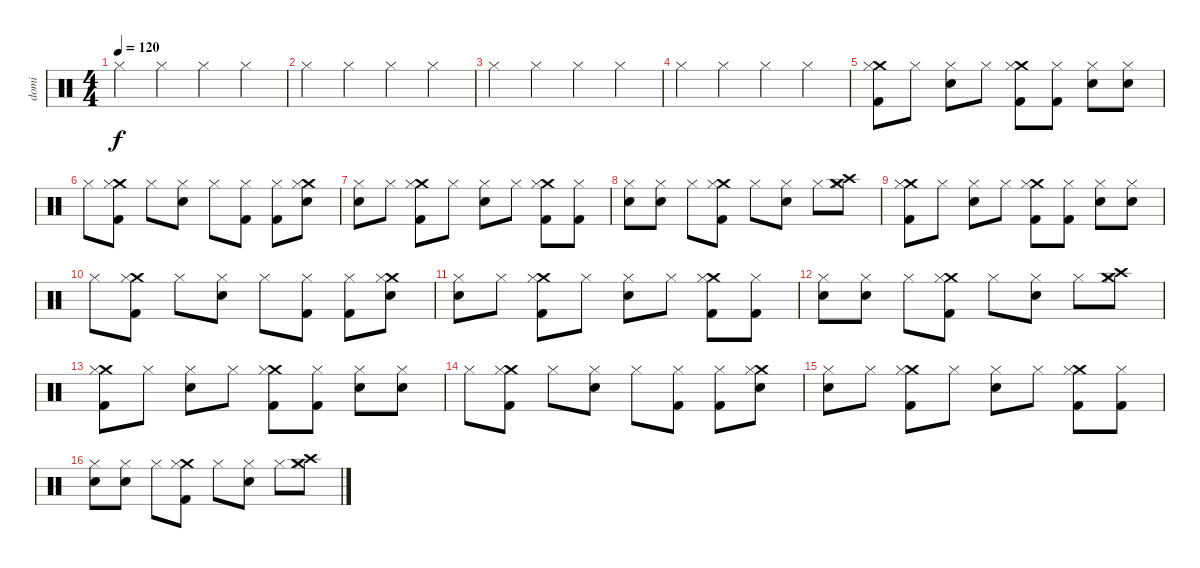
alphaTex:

\track ("domi" "domi") {instrument percussion}
\staff {score}
\articulation defaults
\ts (4 4)
\tempo 120
\clef neutral
\ks c "Hi-Hat (closed)".4{dy f} "Hi-Hat (closed)".4 "Hi-Hat (closed)".4 "Hi-Hat (closed)".4
|
"Hi-Hat (closed)".4 "Hi-Hat (closed)".4 "Hi-Hat (closed)".4 "Hi-Hat (closed)".4 |
"Hi-Hat (closed)".4 "Hi-Hat (closed)".4 "Hi-Hat (closed)".4 "Hi-Hat (closed)".4 |
"Hi-Hat (closed)".4 "Hi-Hat (closed)".4 "Hi-Hat (closed)".4 "Hi-Hat (closed)".4 |
("Crash medium (hit)" "Kick (hit) 2" "Hi-Hat (closed)").8 "Hi-Hat (closed)".8 ("Electric Snare (hit)" "Hi-Hat (closed)").8 "Hi-Hat (closed)".8 ("Crash medium (hit)" "Kick (hit) 2" "Hi-Hat (closed)").8 ("Kick (hit) 2" "Hi-Hat (closed)").8 ("Snare (hit) 2" "Hi-Hat (closed)").8 ("Electric Snare (hit)" "Hi-Hat (closed)").8 |
"Hi-Hat (closed)".8 ("Crash medium (hit)" "Kick (hit) 2" "Hi-Hat (closed)").8 "Hi-Hat (closed)".8 ("Electric Snare (hit)" "Hi-Hat (closed)").8 "Hi-Hat (closed)".8 ("Kick (hit) 2" "Hi-Hat (closed)").8 ("Kick (hit) 2" "Hi-Hat (closed)").8 ("Crash medium (hit)" "Snare (hit) 2" "Hi-Hat (closed)").8 |
("Electric Snare (hit)" "Hi-Hat (closed)").8 "Hi-Hat (closed)".8 ("Crash medium (hit)" "Kick (hit) 2" "Hi-Hat (closed)").8 "Hi-Hat (closed)".8 ("Electric Snare (hit)" "Hi-Hat (closed)").8 "Hi-Hat (closed)".8 ("Crash medium (hit)" "Kick (hit) 2" "Hi-Hat (closed)").8 ("Kick (hit) 2" "Hi-Hat (closed)").8 |
("Snare (hit) 2" "Hi-Hat (closed)").8 ("Electric Snare (hit)" "Hi-Hat (closed)").8 "Hi-Hat (closed)".8 ("Crash medium (hit)" "Kick (hit) 2" "Hi-Hat (closed)").8 "Hi-Hat (closed)".8 ("Electric Snare (hit)" "Hi-Hat (closed)").8 "Hi-Hat (closed)".8 ("Crash medium (hit)" "Crash high (hit)" "Hi-Hat (closed)").8 |
("Crash medium (hit)" "Kick (hit) 2" "Hi-Hat (closed)").8 "Hi-Hat (closed)".8 ("Electric Snare (hit)" "Hi-Hat (closed)").8 "Hi-Hat (closed)".8 ("Crash medium (hit)" "Kick (hit) 2" "Hi-Hat (closed)").8 ("Kick (hit) 2" "Hi-Hat (closed)").8 ("Snare (hit) 2" "Hi-Hat (closed)").8 ("Electric Snare (hit)" "Hi-Hat (closed)").8 |
"Hi-Hat (closed)".8 ("Crash medium (hit)" "Kick (hit) 2" "Hi-Hat (closed)").8 "Hi-Hat (closed)".8 ("Electric Snare (hit)" "Hi-Hat (closed)").8 "Hi-Hat (closed)".8 ("Kick (hit) 2" "Hi-Hat (closed)").8 ("Kick (hit) 2" "Hi-Hat (closed)").8 ("Crash medium (hit)" "Snare (hit) 2" "Hi-Hat (closed)").8 |
("Electric Snare (hit)" "Hi-Hat (closed)").8 "Hi-Hat (closed)".8 ("Crash medium (hit)" "Kick (hit) 2" "Hi-Hat (closed)").8 "Hi-Hat (closed)".8 ("Electric Snare (hit)" "Hi-Hat (closed)").8 "Hi-Hat (closed)".8 ("Crash medium (hit)" "Kick (hit) 2" "Hi-Hat (closed)").8 ("Kick (hit) 2" "Hi-Hat (closed)").8 |
("Snare (hit) 2" "Hi-Hat (closed)").8 ("Electric Snare (hit)" "Hi-Hat (closed)").8 "Hi-Hat (closed)".8 ("Crash medium (hit)" "Kick (hit) 2" "Hi-Hat (closed)").8 "Hi-Hat (closed)".8 ("Electric Snare (hit)" "Hi-Hat (closed)").8 "Hi-Hat (closed)".8 ("Crash medium (hit)" "Crash high (hit)" "Hi-Hat (closed)").8 |
("Crash medium (hit)" "Kick (hit) 2" "Hi-Hat (closed)").8 "Hi-Hat (closed)".8 ("Electric Snare (hit)" "Hi-Hat (closed)").8 "Hi-Hat (closed)".8 ("Crash medium (hit)" "Kick (hit) 2" "Hi-Hat (closed)").8 ("Kick (hit) 2" "Hi-Hat (closed)").8 ("Snare (hit) 2" "Hi-Hat (closed)").8 ("Electric Snare (hit)" "Hi-Hat (closed)").8 |
"Hi-Hat (closed)".8 ("Crash medium (hit)" "Kick (hit) 2" "Hi-Hat (closed)").8 "Hi-Hat (closed)".8 ("Electric Snare (hit)" "Hi-Hat (closed)").8 "Hi-Hat (closed)".8 ("Kick (hit) 2" "Hi-Hat (closed)").8 ("Kick (hit) 2" "Hi-Hat (closed)").8 ("Crash medium (hit)" "Snare (hit) 2" "Hi-Hat (closed)").8 |
("Electric Snare (hit)" "Hi-Hat (closed)").8 "Hi-Hat (closed)".8 ("Crash medium (hit)" "Kick (hit) 2" "Hi-Hat (closed)").8 "Hi-Hat (closed)".8 ("Electric Snare (hit)" "Hi-Hat (closed)").8 "Hi-Hat (closed)".8 ("Crash medium (hit)" "Kick (hit) 2" "Hi-Hat (closed)").8 ("Kick (hit) 2" "Hi-Hat (closed)").8 |
("Snare (hit) 2" "Hi-Hat (closed)").8 ("Electric Snare (hit)" "Hi-Hat (closed)").8 "Hi-Hat (closed)".8 ("Crash medium (hit)" "Kick (hit) 2" "Hi-Hat (closed)").8 "Hi-Hat (closed)".8 ("Electric Snare (hit)" "Hi-Hat (closed)").8 "Hi-Hat (closed)".8 ("Crash medium (hit)" "Crash high (hit)" "Hi-Hat (closed)").8
